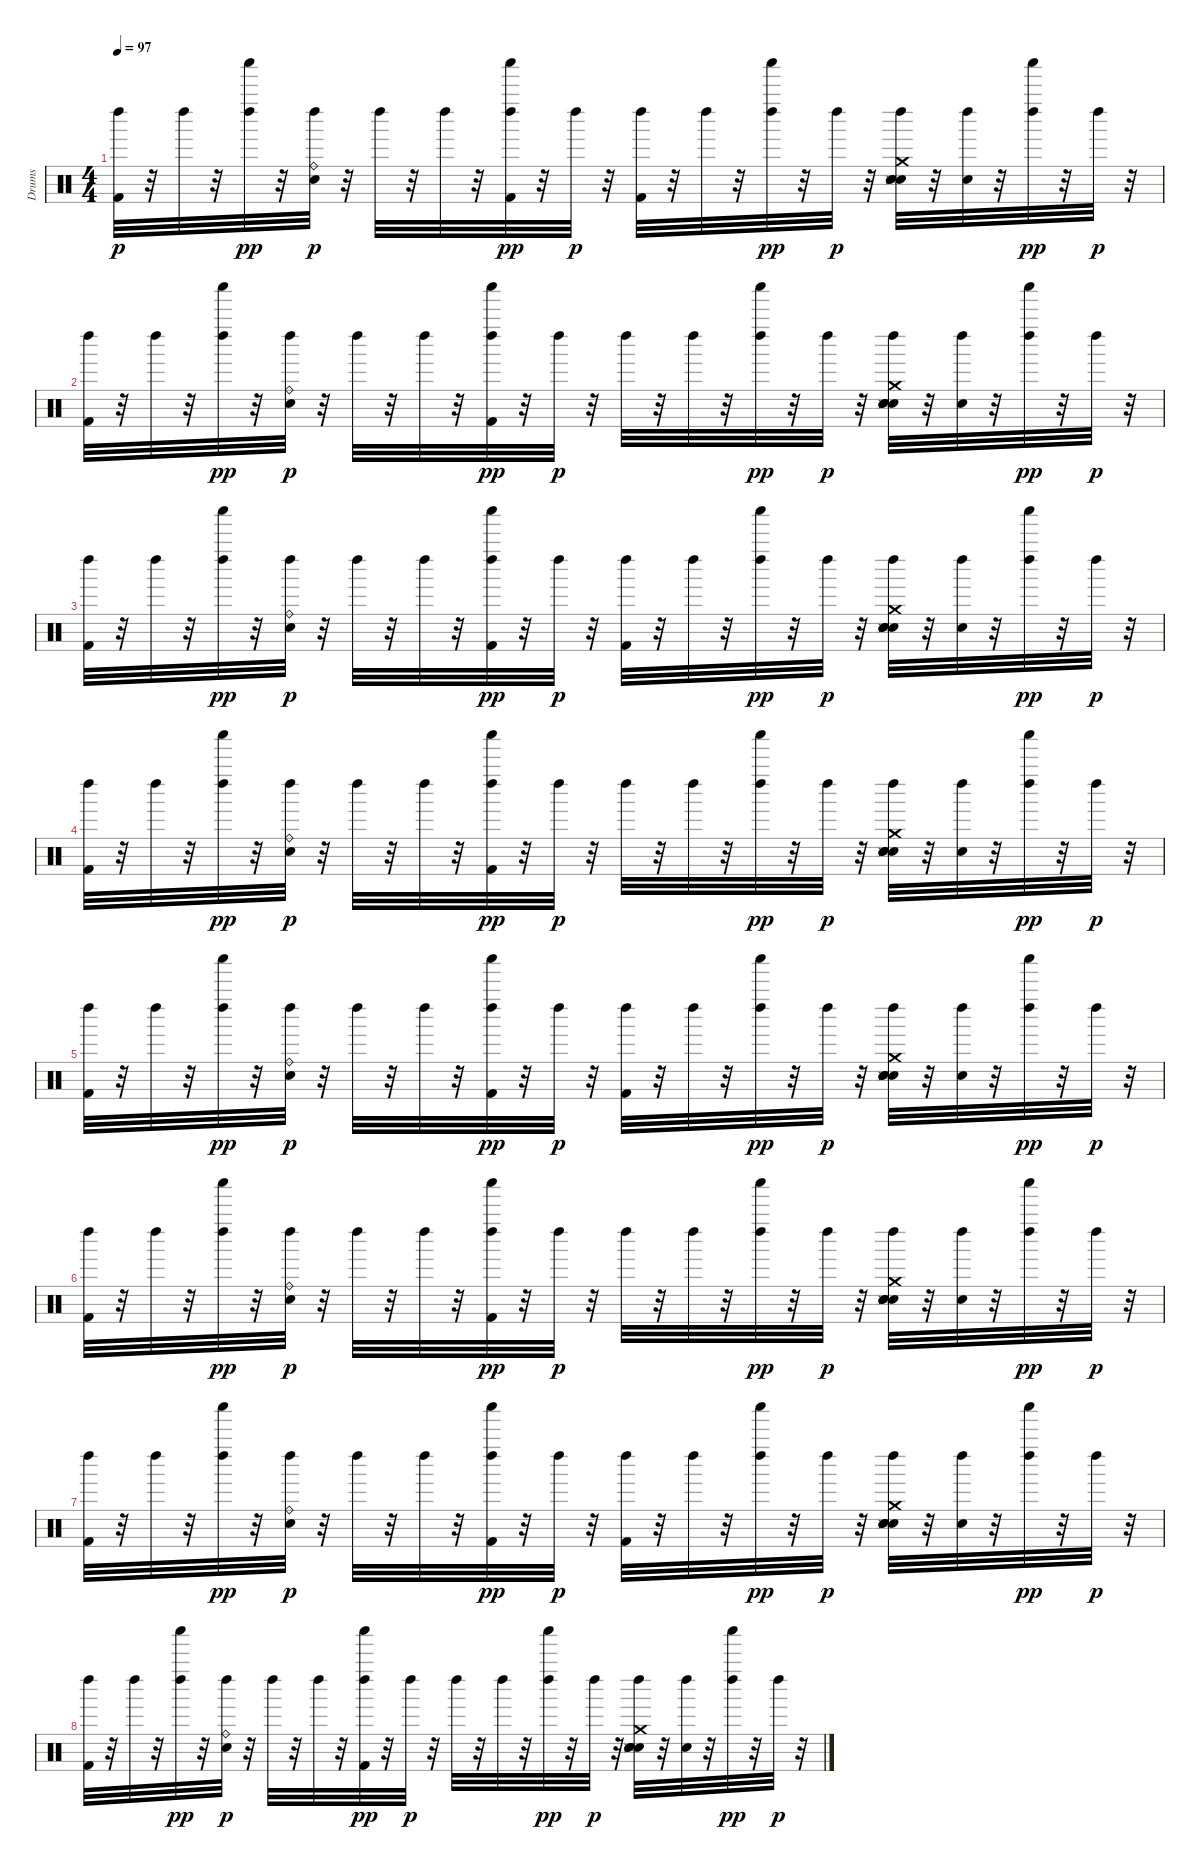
\track ("Drums" "Drums") {instrument percussion}
\staff {score}
\articulation defaults
\ts (4 4)
\tempo 97
\clef neutral
\ks c
("Kick (hit) 2" "Left Maraca (hit)").32{dy p} r.32 "Left Maraca (hit)".32 r.32 ("Shaker (hit)" "Left Maraca (hit)").32{dy pp} r.32 ("Ride (bell)" "Snare (hit) 2" "Left Maraca (hit)").32{dy p} r.32 "Left Maraca (hit)".32 r.32 "Left Maraca (hit)".32 r.32 ("Kick (hit) 2" "Shaker (hit)" "Left Maraca (hit)").32{dy pp} r.32 "Left Maraca (hit)".32{dy p} r.32 ("Kick (hit) 2" "Left Maraca (hit)").32 r.32 "Left Maraca (hit)".32 r.32 ("Shaker (hit)" "Left Maraca (hit)").32{dy pp} r.32 "Left Maraca (hit)".32{dy p} r.32 ("Snare (hit) 2" "Electric Snare (hit)" "Hand Clap (hit)" "Snare (side stick) 3" "Crash medium (hit)" "Left Maraca (hit)").32 r.32 ("Left Maraca (hit)" "Hand Clap (hit)").32 r.32 ("Shaker (hit)" "Left Maraca (hit)").32{dy pp} r.32 "Left Maraca (hit)".32{dy p} r.32 |
("Kick (hit) 2" "Left Maraca (hit)").32 r.32 "Left Maraca (hit)".32 r.32 ("Shaker (hit)" "Left Maraca (hit)").32{dy pp} r.32 ("Ride (bell)" "Snare (hit) 2" "Left Maraca (hit)").32{dy p} r.32 "Left Maraca (hit)".32 r.32 "Left Maraca (hit)".32 r.32 ("Kick (hit) 2" "Shaker (hit)" "Left Maraca (hit)").32{dy pp} r.32 "Left Maraca (hit)".32{dy p} r.32 "Left Maraca (hit)".32 r.32 "Left Maraca (hit)".32 r.32 ("Shaker (hit)" "Left Maraca (hit)").32{dy pp} r.32 "Left Maraca (hit)".32{dy p} r.32 ("Snare (hit) 2" "Electric Snare (hit)" "Hand Clap (hit)" "Snare (side stick) 3" "Crash medium (hit)" "Left Maraca (hit)").32 r.32 ("Left Maraca (hit)" "Hand Clap (hit)").32 r.32 ("Shaker (hit)" "Left Maraca (hit)").32{dy pp} r.32 "Left Maraca (hit)".32{dy p} r.32 |
("Kick (hit) 2" "Left Maraca (hit)").32 r.32 "Left Maraca (hit)".32 r.32 ("Shaker (hit)" "Left Maraca (hit)").32{dy pp} r.32 ("Ride (bell)" "Snare (hit) 2" "Left Maraca (hit)").32{dy p} r.32 "Left Maraca (hit)".32 r.32 "Left Maraca (hit)".32 r.32 ("Kick (hit) 2" "Shaker (hit)" "Left Maraca (hit)").32{dy pp} r.32 "Left Maraca (hit)".32{dy p} r.32 ("Kick (hit) 2" "Left Maraca (hit)").32 r.32 "Left Maraca (hit)".32 r.32 ("Shaker (hit)" "Left Maraca (hit)").32{dy pp} r.32 "Left Maraca (hit)".32{dy p} r.32 ("Snare (hit) 2" "Electric Snare (hit)" "Hand Clap (hit)" "Snare (side stick) 3" "Crash medium (hit)" "Left Maraca (hit)").32 r.32 ("Left Maraca (hit)" "Hand Clap (hit)").32 r.32 ("Shaker (hit)" "Left Maraca (hit)").32{dy pp} r.32 "Left Maraca (hit)".32{dy p} r.32 |
("Kick (hit) 2" "Left Maraca (hit)").32 r.32 "Left Maraca (hit)".32 r.32 ("Shaker (hit)" "Left Maraca (hit)").32{dy pp} r.32 ("Ride (bell)" "Snare (hit) 2" "Left Maraca (hit)").32{dy p} r.32 "Left Maraca (hit)".32 r.32 "Left Maraca (hit)".32 r.32 ("Kick (hit) 2" "Shaker (hit)" "Left Maraca (hit)").32{dy pp} r.32 "Left Maraca (hit)".32{dy p} r.32 "Left Maraca (hit)".32 r.32 "Left Maraca (hit)".32 r.32 ("Shaker (hit)" "Left Maraca (hit)").32{dy pp} r.32 "Left Maraca (hit)".32{dy p} r.32 ("Snare (hit) 2" "Electric Snare (hit)" "Hand Clap (hit)" "Snare (side stick) 3" "Crash medium (hit)" "Left Maraca (hit)").32 r.32 ("Left Maraca (hit)" "Hand Clap (hit)").32 r.32 ("Shaker (hit)" "Left Maraca (hit)").32{dy pp} r.32 "Left Maraca (hit)".32{dy p} r.32 |
("Kick (hit) 2" "Left Maraca (hit)").32 r.32 "Left Maraca (hit)".32 r.32 ("Shaker (hit)" "Left Maraca (hit)").32{dy pp} r.32 ("Ride (bell)" "Snare (hit) 2" "Left Maraca (hit)").32{dy p} r.32 "Left Maraca (hit)".32 r.32 "Left Maraca (hit)".32 r.32 ("Kick (hit) 2" "Shaker (hit)" "Left Maraca (hit)").32{dy pp} r.32 "Left Maraca (hit)".32{dy p} r.32 ("Kick (hit) 2" "Left Maraca (hit)").32 r.32 "Left Maraca (hit)".32 r.32 ("Shaker (hit)" "Left Maraca (hit)").32{dy pp} r.32 "Left Maraca (hit)".32{dy p} r.32 ("Snare (hit) 2" "Electric Snare (hit)" "Hand Clap (hit)" "Snare (side stick) 3" "Crash medium (hit)" "Left Maraca (hit)").32 r.32 ("Left Maraca (hit)" "Hand Clap (hit)").32 r.32 ("Shaker (hit)" "Left Maraca (hit)").32{dy pp} r.32 "Left Maraca (hit)".32{dy p} r.32 |
("Kick (hit) 2" "Left Maraca (hit)").32 r.32 "Left Maraca (hit)".32 r.32 ("Shaker (hit)" "Left Maraca (hit)").32{dy pp} r.32 ("Ride (bell)" "Snare (hit) 2" "Left Maraca (hit)").32{dy p} r.32 "Left Maraca (hit)".32 r.32 "Left Maraca (hit)".32 r.32 ("Kick (hit) 2" "Shaker (hit)" "Left Maraca (hit)").32{dy pp} r.32 "Left Maraca (hit)".32{dy p} r.32 "Left Maraca (hit)".32 r.32 "Left Maraca (hit)".32 r.32 ("Shaker (hit)" "Left Maraca (hit)").32{dy pp} r.32 "Left Maraca (hit)".32{dy p} r.32 ("Snare (hit) 2" "Electric Snare (hit)" "Hand Clap (hit)" "Snare (side stick) 3" "Crash medium (hit)" "Left Maraca (hit)").32 r.32 ("Left Maraca (hit)" "Hand Clap (hit)").32 r.32 ("Shaker (hit)" "Left Maraca (hit)").32{dy pp} r.32 "Left Maraca (hit)".32{dy p} r.32 |
("Kick (hit) 2" "Left Maraca (hit)").32 r.32 "Left Maraca (hit)".32 r.32 ("Shaker (hit)" "Left Maraca (hit)").32{dy pp} r.32 ("Ride (bell)" "Snare (hit) 2" "Left Maraca (hit)").32{dy p} r.32 "Left Maraca (hit)".32 r.32 "Left Maraca (hit)".32 r.32 ("Kick (hit) 2" "Shaker (hit)" "Left Maraca (hit)").32{dy pp} r.32 "Left Maraca (hit)".32{dy p} r.32 ("Kick (hit) 2" "Left Maraca (hit)").32 r.32 "Left Maraca (hit)".32 r.32 ("Shaker (hit)" "Left Maraca (hit)").32{dy pp} r.32 "Left Maraca (hit)".32{dy p} r.32 ("Snare (hit) 2" "Electric Snare (hit)" "Hand Clap (hit)" "Snare (side stick) 3" "Crash medium (hit)" "Left Maraca (hit)").32 r.32 ("Left Maraca (hit)" "Hand Clap (hit)").32 r.32 ("Shaker (hit)" "Left Maraca (hit)").32{dy pp} r.32 "Left Maraca (hit)".32{dy p} r.32 |
("Kick (hit) 2" "Left Maraca (hit)").32 r.32 "Left Maraca (hit)".32 r.32 ("Shaker (hit)" "Left Maraca (hit)").32{dy pp} r.32 ("Ride (bell)" "Snare (hit) 2" "Left Maraca (hit)").32{dy p} r.32 "Left Maraca (hit)".32 r.32 "Left Maraca (hit)".32 r.32 ("Kick (hit) 2" "Shaker (hit)" "Left Maraca (hit)").32{dy pp} r.32 "Left Maraca (hit)".32{dy p} r.32 "Left Maraca (hit)".32 r.32 "Left Maraca (hit)".32 r.32 ("Shaker (hit)" "Left Maraca (hit)").32{dy pp} r.32 "Left Maraca (hit)".32{dy p} r.32 ("Snare (hit) 2" "Electric Snare (hit)" "Hand Clap (hit)" "Snare (side stick) 3" "Crash medium (hit)" "Left Maraca (hit)").32 r.32 ("Left Maraca (hit)" "Hand Clap (hit)").32 r.32 ("Shaker (hit)" "Left Maraca (hit)").32{dy pp} r.32 "Left Maraca (hit)".32{dy p} r.32
